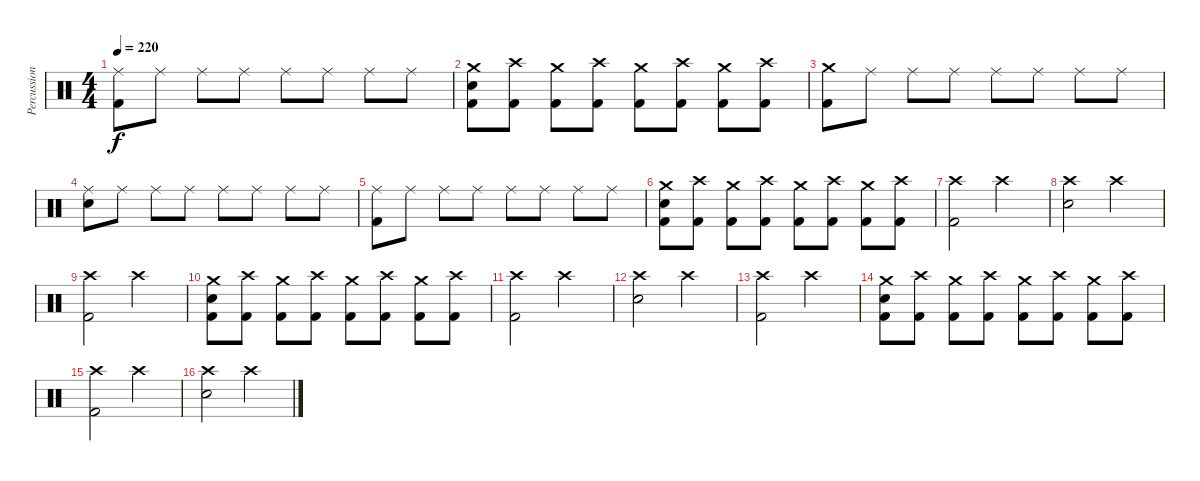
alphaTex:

\track ("Percussion" "Percussion") {instrument percussion}
\staff {score}
\articulation defaults
\ts (4 4)
\tempo 220
\clef neutral
\ks c
("Ride (middle)" "Kick (hit) 2").8{dy f} "Ride (middle)".8 "Ride (middle)".8 "Ride (middle)".8 "Ride (middle)".8 "Ride (middle)".8 "Ride (middle)".8 "Ride (middle)".8 |
("Crash medium (hit)" "Snare (hit) 2" "Kick (hit) 2").8 ("Crash high (hit)" "Kick (hit) 2").8 ("Crash medium (hit)" "Kick (hit) 2").8 ("Crash high (hit)" "Kick (hit) 2").8 ("Crash medium (hit)" "Kick (hit) 2").8 ("Crash high (hit)" "Kick (hit) 2").8 ("Crash medium (hit)" "Kick (hit) 2").8 ("Crash high (hit)" "Kick (hit) 2").8 |
("Crash medium (hit)" "Kick (hit) 2").8 "Ride (middle)".8 "Ride (middle)".8 "Ride (middle)".8 "Ride (middle)".8 "Ride (middle)".8 "Ride (middle)".8 "Ride (middle)".8 |
("Ride (middle)" "Snare (hit) 2").8 "Ride (middle)".8 "Ride (middle)".8 "Ride (middle)".8 "Ride (middle)".8 "Ride (middle)".8 "Ride (middle)".8 "Ride (middle)".8 |
("Ride (middle)" "Kick (hit) 2").8 "Ride (middle)".8 "Ride (middle)".8 "Ride (middle)".8 "Ride (middle)".8 "Ride (middle)".8 "Ride (middle)".8 "Ride (middle)".8 |
("Crash medium (hit)" "Snare (hit) 2" "Kick (hit) 2").8 ("Crash high (hit)" "Kick (hit) 2").8 ("Crash medium (hit)" "Kick (hit) 2").8 ("Crash high (hit)" "Kick (hit) 2").8 ("Crash medium (hit)" "Kick (hit) 2").8 ("Crash high (hit)" "Kick (hit) 2").8 ("Crash medium (hit)" "Kick (hit) 2").8 ("Crash high (hit)" "Kick (hit) 2").8 |
("Crash high (hit)" "Kick (hit) 2").2 "Crash high (hit)".2 |
("Crash high (hit)" "Snare (hit) 2").2 "Crash high (hit)".2 |
("Crash high (hit)" "Kick (hit) 2").2 "Crash high (hit)".2 |
("Crash medium (hit)" "Snare (hit) 2" "Kick (hit) 2").8 ("Crash high (hit)" "Kick (hit) 2").8 ("Crash medium (hit)" "Kick (hit) 2").8 ("Crash high (hit)" "Kick (hit) 2").8 ("Crash medium (hit)" "Kick (hit) 2").8 ("Crash high (hit)" "Kick (hit) 2").8 ("Crash medium (hit)" "Kick (hit) 2").8 ("Crash high (hit)" "Kick (hit) 2").8 |
("Crash high (hit)" "Kick (hit) 2").2 "Crash high (hit)".2 |
("Crash high (hit)" "Snare (hit) 2").2 "Crash high (hit)".2 |
("Crash high (hit)" "Kick (hit) 2").2 "Crash high (hit)".2 |
("Crash medium (hit)" "Snare (hit) 2" "Kick (hit) 2").8 ("Crash high (hit)" "Kick (hit) 2").8 ("Crash medium (hit)" "Kick (hit) 2").8 ("Crash high (hit)" "Kick (hit) 2").8 ("Crash medium (hit)" "Kick (hit) 2").8 ("Crash high (hit)" "Kick (hit) 2").8 ("Crash medium (hit)" "Kick (hit) 2").8 ("Crash high (hit)" "Kick (hit) 2").8 |
("Crash high (hit)" "Kick (hit) 2").2 "Crash high (hit)".2 |
("Crash high (hit)" "Snare (hit) 2").2 "Crash high (hit)".2
